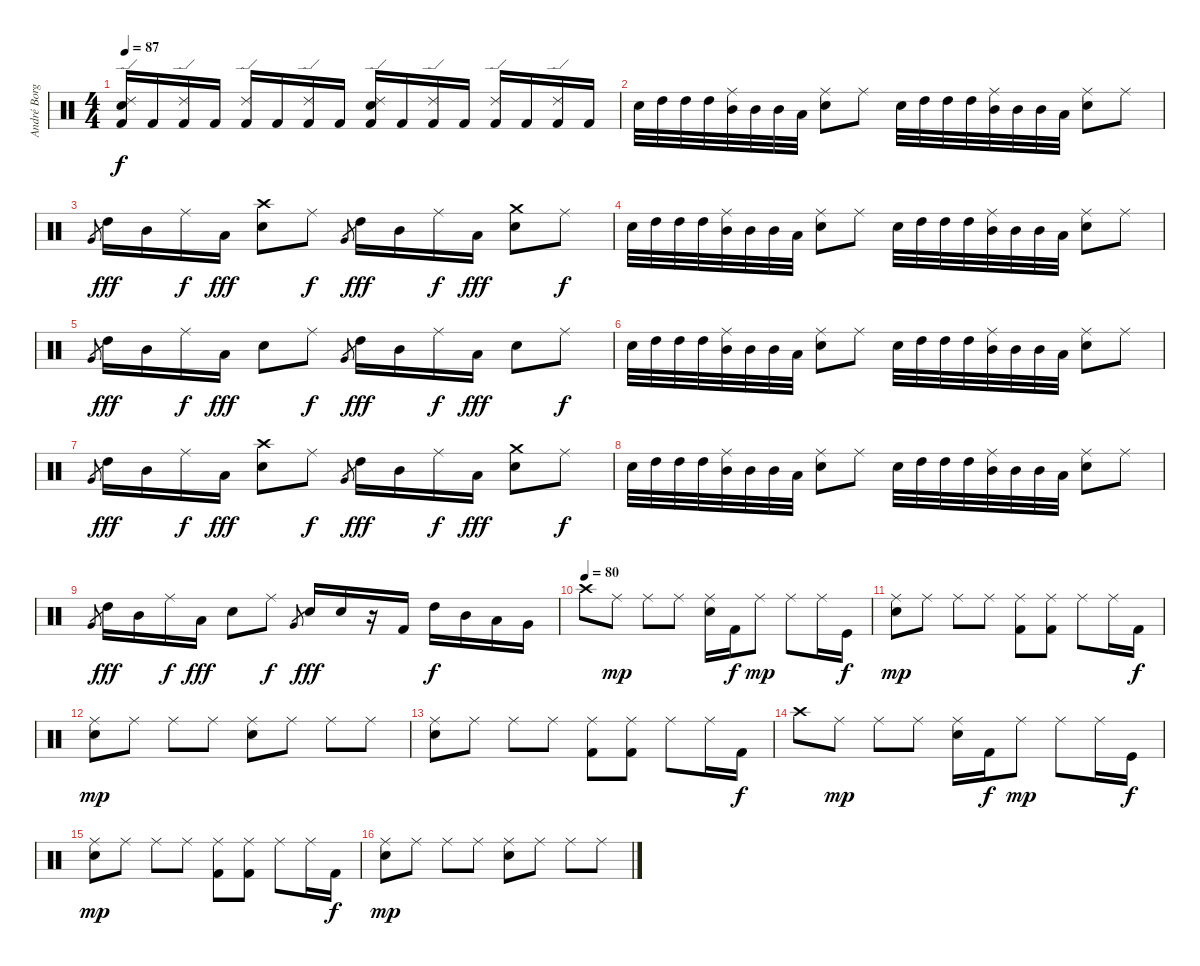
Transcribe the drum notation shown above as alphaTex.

\track ("André Borgman" "André Borg") {instrument percussion}
\staff {score}
\articulation defaults
\ts (4 4)
\tempo 87
\clef neutral
\ks c
("Electric Snare (hit)" "Kick (hit) 2" "Ride (edge) 2").16{dy f} "Kick (hit) 2".16 ("Kick (hit) 2" "Ride (edge) 2").16 "Kick (hit) 2".16 ("Kick (hit) 2" "Ride (edge) 2").16 "Kick (hit) 2".16 ("Kick (hit) 2" "Ride (edge) 2").16 "Kick (hit) 2".16 ("Electric Snare (hit)" "Kick (hit) 2" "Ride (edge) 2").16 "Kick (hit) 2".16 ("Kick (hit) 2" "Ride (edge) 2").16 "Kick (hit) 2".16 ("Kick (hit) 2" "Ride (edge) 2").16 "Kick (hit) 2".16 ("Kick (hit) 2" "Ride (edge) 2").16 "Kick (hit) 2".16 |
"Electric Snare (hit)".32 "High Tom (hit)".32 "High Tom (hit)".32 "High Tom (hit)".32 ("Ride (middle)" "Mid Tom (hit)").32 "Mid Tom (hit)".32 "Mid Tom (hit)".32 "Low Tom (hit)".32 ("Ride (middle)" "Electric Snare (hit)").8 "Ride (middle)".8 "Electric Snare (hit)".32 "High Tom (hit)".32 "High Tom (hit)".32 "High Tom (hit)".32 ("Ride (middle)" "Mid Tom (hit)").32 "Mid Tom (hit)".32 "Mid Tom (hit)".32 "Low Tom (hit)".32 ("Ride (middle)" "Electric Snare (hit)").8 "Ride (middle)".8 |
"Very Low Tom (hit)".8{gr} "High Tom (hit)".16{dy fff} "Mid Tom (hit)".16 "Ride (middle)".16{dy f} "Low Tom (hit)".16{dy fff} ("Crash high (hit)" "Electric Snare (hit)").8 "Ride (middle)".8{dy f} "Very Low Tom (hit)".8{gr} "High Tom (hit)".16{dy fff} "Mid Tom (hit)".16 "Ride (middle)".16{dy f} "Low Tom (hit)".16{dy fff} ("Crash medium (hit)" "Electric Snare (hit)").8 "Ride (middle)".8{dy f} |
"Electric Snare (hit)".32 "High Tom (hit)".32 "High Tom (hit)".32 "High Tom (hit)".32 ("Ride (middle)" "Mid Tom (hit)").32 "Mid Tom (hit)".32 "Mid Tom (hit)".32 "Low Tom (hit)".32 ("Ride (middle)" "Electric Snare (hit)").8 "Ride (middle)".8 "Electric Snare (hit)".32 "High Tom (hit)".32 "High Tom (hit)".32 "High Tom (hit)".32 ("Ride (middle)" "Mid Tom (hit)").32 "Mid Tom (hit)".32 "Mid Tom (hit)".32 "Low Tom (hit)".32 ("Ride (middle)" "Electric Snare (hit)").8 "Ride (middle)".8 |
"Very Low Tom (hit)".8{gr} "High Tom (hit)".16{dy fff} "Mid Tom (hit)".16 "Ride (middle)".16{dy f} "Low Tom (hit)".16{dy fff} "Electric Snare (hit)".8 "Ride (middle)".8{dy f} "Very Low Tom (hit)".8{gr} "High Tom (hit)".16{dy fff} "Mid Tom (hit)".16 "Ride (middle)".16{dy f} "Low Tom (hit)".16{dy fff} "Electric Snare (hit)".8 "Ride (middle)".8{dy f} |
"Electric Snare (hit)".32 "High Tom (hit)".32 "High Tom (hit)".32 "High Tom (hit)".32 ("Ride (middle)" "Mid Tom (hit)").32 "Mid Tom (hit)".32 "Mid Tom (hit)".32 "Low Tom (hit)".32 ("Ride (middle)" "Electric Snare (hit)").8 "Ride (middle)".8 "Electric Snare (hit)".32 "High Tom (hit)".32 "High Tom (hit)".32 "High Tom (hit)".32 ("Ride (middle)" "Mid Tom (hit)").32 "Mid Tom (hit)".32 "Mid Tom (hit)".32 "Low Tom (hit)".32 ("Ride (middle)" "Electric Snare (hit)").8 "Ride (middle)".8 |
"Very Low Tom (hit)".8{gr} "High Tom (hit)".16{dy fff} "Mid Tom (hit)".16 "Ride (middle)".16{dy f} "Low Tom (hit)".16{dy fff} ("Crash high (hit)" "Electric Snare (hit)").8 "Ride (middle)".8{dy f} "Very Low Tom (hit)".8{gr} "High Tom (hit)".16{dy fff} "Mid Tom (hit)".16 "Ride (middle)".16{dy f} "Low Tom (hit)".16{dy fff} ("Crash medium (hit)" "Electric Snare (hit)").8 "Ride (middle)".8{dy f} |
"Electric Snare (hit)".32 "High Tom (hit)".32 "High Tom (hit)".32 "High Tom (hit)".32 ("Ride (middle)" "Mid Tom (hit)").32 "Mid Tom (hit)".32 "Mid Tom (hit)".32 "Low Tom (hit)".32 ("Ride (middle)" "Electric Snare (hit)").8 "Ride (middle)".8 "Electric Snare (hit)".32 "High Tom (hit)".32 "High Tom (hit)".32 "High Tom (hit)".32 ("Ride (middle)" "Mid Tom (hit)").32 "Mid Tom (hit)".32 "Mid Tom (hit)".32 "Low Tom (hit)".32 ("Ride (middle)" "Electric Snare (hit)").8 "Ride (middle)".8 |
"Very Low Tom (hit)".8{gr} "High Tom (hit)".16{dy fff} "Mid Tom (hit)".16 "Ride (middle)".16{dy f} "Low Tom (hit)".16{dy fff} "Electric Snare (hit)".8 "Ride (middle)".8{dy f} "Very Low Tom (hit)".8{gr} "Electric Snare (hit)".16{dy fff} "Electric Snare (hit)".16 r.16 "Kick (hit) 2".16 "High Tom (hit)".16{dy f} "Mid Tom (hit)".16 "Low Tom (hit)".16 "Very Low Tom (hit)".16 |
\tempo (80)
"Crash high (hit)".8 "Ride (middle)".8{dy mp} "Ride (middle)".8 "Ride (middle)".8 ("Electric Snare (hit)" "Ride (middle)").16 "Kick (hit) 2".16{dy f} "Ride (middle)".8{dy mp} "Ride (middle)".8 "Ride (middle)".16 "Kick (hit)".16{dy f} |
("Electric Snare (hit)" "Ride (middle)").8{dy mp} "Ride (middle)".8 "Ride (middle)".8 "Ride (middle)".8 ("Kick (hit) 2" "Ride (middle)").8 ("Kick (hit) 2" "Ride (middle)").8 "Ride (middle)".8 "Ride (middle)".16 "Kick (hit) 2".16{dy f} |
("Electric Snare (hit)" "Ride (middle)").8{dy mp} "Ride (middle)".8 "Ride (middle)".8 "Ride (middle)".8 ("Electric Snare (hit)" "Ride (middle)").8 "Ride (middle)".8 "Ride (middle)".8 "Ride (middle)".8 |
("Electric Snare (hit)" "Ride (middle)").8 "Ride (middle)".8 "Ride (middle)".8 "Ride (middle)".8 ("Kick (hit) 2" "Ride (middle)").8 ("Kick (hit) 2" "Ride (middle)").8 "Ride (middle)".8 "Ride (middle)".16 "Kick (hit) 2".16{dy f} |
"Crash high (hit)".8 "Ride (middle)".8{dy mp} "Ride (middle)".8 "Ride (middle)".8 ("Electric Snare (hit)" "Ride (middle)").16 "Kick (hit) 2".16{dy f} "Ride (middle)".8{dy mp} "Ride (middle)".8 "Ride (middle)".16 "Kick (hit)".16{dy f} |
("Electric Snare (hit)" "Ride (middle)").8{dy mp} "Ride (middle)".8 "Ride (middle)".8 "Ride (middle)".8 ("Kick (hit) 2" "Ride (middle)").8 ("Kick (hit) 2" "Ride (middle)").8 "Ride (middle)".8 "Ride (middle)".16 "Kick (hit) 2".16{dy f} |
("Electric Snare (hit)" "Ride (middle)").8{dy mp} "Ride (middle)".8 "Ride (middle)".8 "Ride (middle)".8 ("Electric Snare (hit)" "Ride (middle)").8 "Ride (middle)".8 "Ride (middle)".8 "Ride (middle)".8
